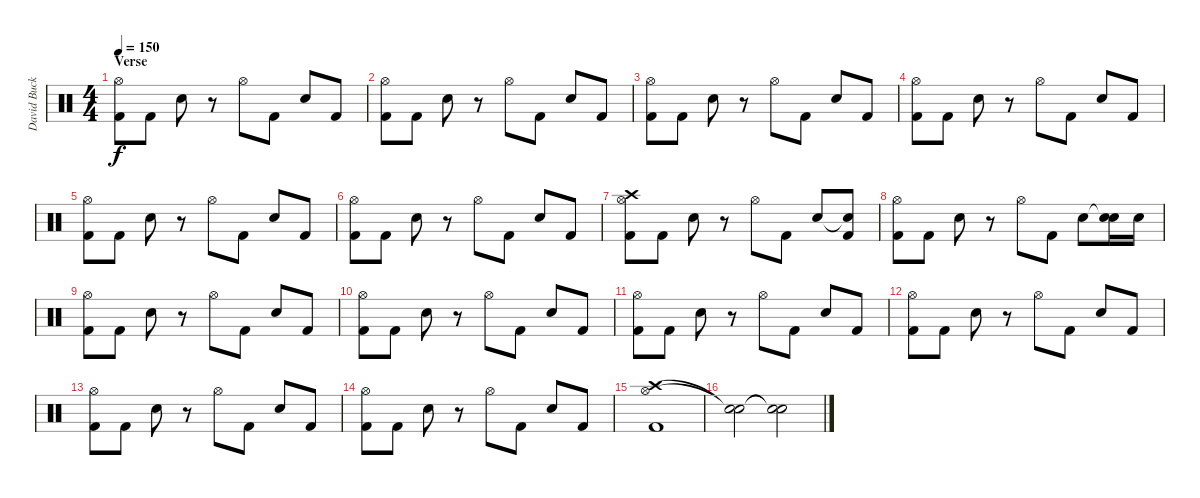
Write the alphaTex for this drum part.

\track ("David Buckner" "David Buck") {instrument percussion}
\staff {score}
\articulation defaults
\ts (4 4)
\section ("" "Verse")
\tempo 150
\clef neutral
\ks c
("Hi-Hat (open)" "Kick (hit) 2").8{dy f} "Kick (hit) 2".8 "Snare (hit) 2".8 r.8 "Hi-Hat (open)".8 "Kick (hit) 2".8 "Snare (hit) 2".8 "Kick (hit) 2".8 |
("Hi-Hat (open)" "Kick (hit) 2").8 "Kick (hit) 2".8 "Snare (hit) 2".8 r.8 "Hi-Hat (open)".8 "Kick (hit) 2".8 "Snare (hit) 2".8 "Kick (hit) 2".8 |
("Hi-Hat (open)" "Kick (hit) 2").8 "Kick (hit) 2".8 "Snare (hit) 2".8 r.8 "Hi-Hat (open)".8 "Kick (hit) 2".8 "Snare (hit) 2".8 "Kick (hit) 2".8 |
("Hi-Hat (open)" "Kick (hit) 2").8 "Kick (hit) 2".8 "Snare (hit) 2".8 r.8 "Hi-Hat (open)".8 "Kick (hit) 2".8 "Snare (hit) 2".8 "Kick (hit) 2".8 |
("Hi-Hat (open)" "Kick (hit) 2").8 "Kick (hit) 2".8 "Snare (hit) 2".8 r.8 "Hi-Hat (open)".8 "Kick (hit) 2".8 "Snare (hit) 2".8 "Kick (hit) 2".8 |
("Hi-Hat (open)" "Kick (hit) 2").8 "Kick (hit) 2".8 "Snare (hit) 2".8 r.8 "Hi-Hat (open)".8 "Kick (hit) 2".8 "Snare (hit) 2".8 "Kick (hit) 2".8 |
("Crash high (hit)" "Hi-Hat (open)" "Kick (hit) 2").8 "Kick (hit) 2".8 "Snare (hit) 2".8 r.8 "Hi-Hat (open)".8 "Kick (hit) 2".8 "Snare (hit) 2".8 ("Snare (hit)"{t} "Kick (hit) 2").8 |
("Hi-Hat (open)" "Kick (hit) 2").8 "Kick (hit) 2".8 "Snare (hit) 2".8 r.8 "Hi-Hat (open)".8 "Kick (hit) 2".8 "Snare (hit) 2".8 ("Snare (hit)"{t} "Snare (hit) 2").16 "Snare (hit) 2".16 |
("Hi-Hat (open)" "Kick (hit) 2").8 "Kick (hit) 2".8 "Snare (hit) 2".8 r.8 "Hi-Hat (open)".8 "Kick (hit) 2".8 "Snare (hit) 2".8 "Kick (hit) 2".8 |
("Hi-Hat (open)" "Kick (hit) 2").8 "Kick (hit) 2".8 "Snare (hit) 2".8 r.8 "Hi-Hat (open)".8 "Kick (hit) 2".8 "Snare (hit) 2".8 "Kick (hit) 2".8 |
("Hi-Hat (open)" "Kick (hit) 2").8 "Kick (hit) 2".8 "Snare (hit) 2".8 r.8 "Hi-Hat (open)".8 "Kick (hit) 2".8 "Snare (hit) 2".8 "Kick (hit) 2".8 |
("Hi-Hat (open)" "Kick (hit) 2").8 "Kick (hit) 2".8 "Snare (hit) 2".8 r.8 "Hi-Hat (open)".8 "Kick (hit) 2".8 "Snare (hit) 2".8 "Kick (hit) 2".8 |
("Hi-Hat (open)" "Kick (hit) 2").8 "Kick (hit) 2".8 "Snare (hit) 2".8 r.8 "Hi-Hat (open)".8 "Kick (hit) 2".8 "Snare (hit) 2".8 "Kick (hit) 2".8 |
("Hi-Hat (open)" "Kick (hit) 2").8 "Kick (hit) 2".8 "Snare (hit) 2".8 r.8 "Hi-Hat (open)".8 "Kick (hit) 2".8 "Snare (hit) 2".8 "Kick (hit) 2".8 |
("Crash high (hit)" "Hi-Hat (open)" "Kick (hit) 2").1 |
("Snare (hit)"{t} "Snare (hit)"{t}).2 ("Snare (hit)"{t} "Snare (hit)"{t}).2
